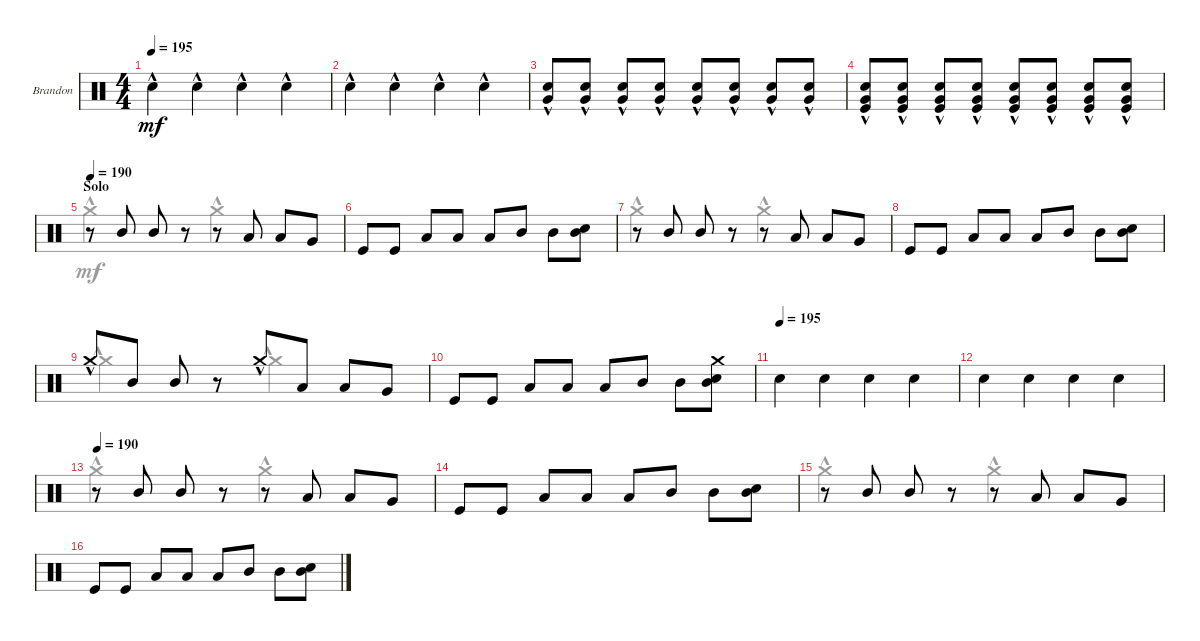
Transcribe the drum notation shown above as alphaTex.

\defaultSystemsLayout 4
\bracketExtendMode groupsimilarinstruments
\firstSystemTrackNameOrientation horizontal
\otherSystemsTrackNameOrientation horizontal
\track ("Drumkit" "Brandon") {instrument percussion}
\staff {score}
\articulation defaults
\voice
\ts (4 4)
\tempo 195
\clef neutral
\scale
0.333333
\ks c "Snare (hit) 2"{hac}.4{dy mf} "Snare (hit) 2"{hac}.4 "Snare (hit) 2"{hac}.4 "Snare (hit) 2"{hac}.4
|
\scale
0.333333 "Snare (hit) 2"{hac}.4 "Snare (hit) 2"{hac}.4 "Snare (hit) 2"{hac}.4 "Snare (hit) 2"{hac}.4 |
\scale
0.333333 ("Very Low Tom (hit)"{hac} "Snare (hit) 2"{hac}).8 ("Very Low Tom (hit)"{hac} "Snare (hit) 2"{hac}).8 ("Very Low Tom (hit)"{hac} "Snare (hit) 2"{hac}).8 ("Very Low Tom (hit)"{hac} "Snare (hit) 2"{hac}).8 ("Very Low Tom (hit)"{hac} "Snare (hit) 2"{hac}).8 ("Very Low Tom (hit)"{hac} "Snare (hit) 2"{hac}).8 ("Very Low Tom (hit)"{hac} "Snare (hit) 2"{hac}).8 ("Very Low Tom (hit)"{hac} "Snare (hit) 2"{hac}).8 |
\scale
0.333333 ("Very Low Tom (hit)"{hac} "Snare (hit) 2"{hac} "Kick (hit)"{hac}).8 ("Very Low Tom (hit)"{hac} "Snare (hit) 2"{hac} "Kick (hit)"{hac}).8 ("Very Low Tom (hit)"{hac} "Snare (hit) 2"{hac} "Kick (hit)"{hac}).8 ("Very Low Tom (hit)"{hac} "Snare (hit) 2"{hac} "Kick (hit)"{hac}).8 ("Very Low Tom (hit)"{hac} "Snare (hit) 2"{hac} "Kick (hit)"{hac}).8 ("Very Low Tom (hit)"{hac} "Snare (hit) 2"{hac} "Kick (hit)"{hac}).8 ("Very Low Tom (hit)"{hac} "Snare (hit) 2"{hac} "Kick (hit)"{hac}).8 ("Very Low Tom (hit)"{hac} "Snare (hit) 2"{hac} "Kick (hit)"{hac}).8 |
\section ("" "Solo")
\tempo (190 0.00625)
\scale
0.333333 r.8 "Mid Tom (hit)".8 "Mid Tom (hit)".8 r.8 r.8 "Low Tom (hit)".8 "Low Tom (hit)".8 "Very Low Tom (hit)".8 |
\scale
0.333333 "Kick (hit)".8 "Kick (hit)".8 "Low Tom (hit)".8 "Low Tom (hit)".8 "Low Tom (hit)".8 "Mid Tom (hit)".8 "Mid Tom (hit)".8 ("Snare (hit) 2" "Mid Tom (hit)").8 |
\scale
0.333333 r.8 "Mid Tom (hit)".8 "Mid Tom (hit)".8 r.8 r.8 "Low Tom (hit)".8 "Low Tom (hit)".8 "Very Low Tom (hit)".8 |
\scale
0.333333 "Kick (hit)".8 "Kick (hit)".8 "Low Tom (hit)".8 "Low Tom (hit)".8 "Low Tom (hit)".8 "Mid Tom (hit)".8 "Mid Tom (hit)".8 ("Snare (hit) 2" "Mid Tom (hit)").8 |
\scale
0.333333 "Crash medium (hit)"{hac}.8 "Mid Tom (hit)".8 "Mid Tom (hit)".8 r.8 "Crash medium (hit)"{hac}.8 "Low Tom (hit)".8 "Low Tom (hit)".8 "Very Low Tom (hit)".8 |
\scale
0.333333 "Kick (hit)".8 "Kick (hit)".8 "Low Tom (hit)".8 "Low Tom (hit)".8 "Low Tom (hit)".8 "Mid Tom (hit)".8 "Mid Tom (hit)".8 ("Snare (hit) 2" "Mid Tom (hit)" "Crash medium (hit)").8 |
\tempo (195 0.00625)
\scale
0.333333 "Snare (hit) 2".4 "Snare (hit) 2".4 "Snare (hit) 2".4 "Snare (hit) 2".4 |
\scale
0.333333 "Snare (hit) 2".4 "Snare (hit) 2".4 "Snare (hit) 2".4 "Snare (hit) 2".4 |
\tempo (190 0.00625)
\scale
0.333333 r.8 "Mid Tom (hit)".8 "Mid Tom (hit)".8 r.8 r.8 "Low Tom (hit)".8 "Low Tom (hit)".8 "Very Low Tom (hit)".8 |
\scale
0.333333 "Kick (hit)".8 "Kick (hit)".8 "Low Tom (hit)".8 "Low Tom (hit)".8 "Low Tom (hit)".8 "Mid Tom (hit)".8 "Mid Tom (hit)".8 ("Snare (hit) 2" "Mid Tom (hit)").8 |
\scale
0.333333 r.8 "Mid Tom (hit)".8 "Mid Tom (hit)".8 r.8 r.8 "Low Tom (hit)".8 "Low Tom (hit)".8 "Very Low Tom (hit)".8 |
\scale
0.333333 "Kick (hit)".8 "Kick (hit)".8 "Low Tom (hit)".8 "Low Tom (hit)".8 "Low Tom (hit)".8 "Mid Tom (hit)".8 "Mid Tom (hit)".8 ("Snare (hit) 2" "Mid Tom (hit)").8
\voice
\clef neutral
\ottava regular
\simile none
\scale
0.333333
\ks c
|
\scale
0.333333 |
\scale
0.333333 |
\scale
0.333333 |
\scale
0.333333 "Crash medium (hit)"{hac}.2 "Crash medium (hit)"{hac}.2 |
\scale
0.333333 |
\scale
0.333333 "Crash medium (hit)"{hac}.2 "Crash medium (hit)"{hac}.2 |
\scale
0.333333 |
\scale
0.333333 "Crash medium (hit)"{hac}.2 "Crash medium (hit)"{hac}.2 |
\scale
0.333333 |
\scale
0.333333 |
\scale
0.333333 |
\scale
0.333333 "Crash medium (hit)"{hac}.2 "Crash medium (hit)"{hac}.2 |
\scale
0.333333 |
\scale
0.333333 "Crash medium (hit)"{hac}.2 "Crash medium (hit)"{hac}.2 |
\scale
0.333333
